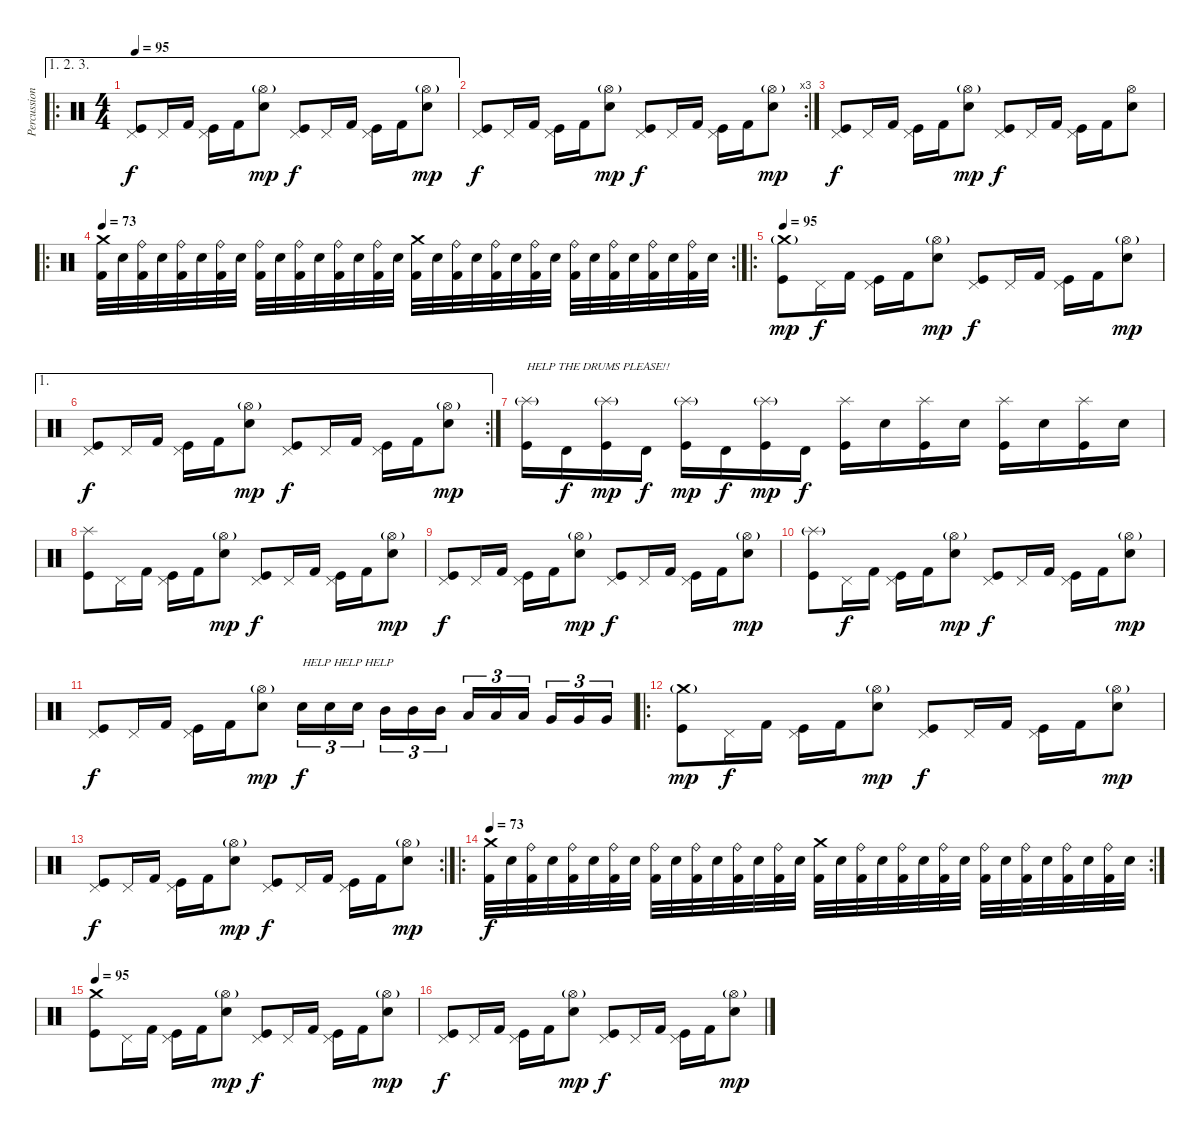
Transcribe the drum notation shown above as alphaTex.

\track ("Percussion" "Percussion") {instrument percussion}
\staff {score}
\articulation defaults
\ae (1 2 3)
\ro
\ts (4 4)
\tempo 95
\clef neutral
\ks c
("Pedal Hi-Hat (hit)" "Kick (hit)").8{dy f} "Pedal Hi-Hat (hit)".16 "Kick (hit) 2".16 ("Pedal Hi-Hat (hit)" "Kick (hit)").16 "Kick (hit) 2".16 ("Hi-Hat (open)"{g} "Electric Snare (hit)").8{dy mp} ("Pedal Hi-Hat (hit)" "Kick (hit)").8{dy f} "Pedal Hi-Hat (hit)".16 "Kick (hit) 2".16 ("Pedal Hi-Hat (hit)" "Kick (hit)").16 "Kick (hit) 2".16 ("Hi-Hat (open)"{g} "Electric Snare (hit)").8{dy mp} |
\rc 3
("Pedal Hi-Hat (hit)" "Kick (hit)").8{dy f} "Pedal Hi-Hat (hit)".16 "Kick (hit) 2".16 ("Pedal Hi-Hat (hit)" "Kick (hit)").16 "Kick (hit) 2".16 ("Hi-Hat (open)"{g} "Electric Snare (hit)").8{dy mp} ("Pedal Hi-Hat (hit)" "Kick (hit)").8{dy f} "Pedal Hi-Hat (hit)".16 "Kick (hit) 2".16 ("Pedal Hi-Hat (hit)" "Kick (hit)").16 "Kick (hit) 2".16 ("Hi-Hat (open)"{g} "Electric Snare (hit)").8{dy mp} |
("Pedal Hi-Hat (hit)" "Kick (hit)").8{dy f} "Pedal Hi-Hat (hit)".16 "Kick (hit) 2".16 ("Pedal Hi-Hat (hit)" "Kick (hit)").16 "Kick (hit) 2".16 ("Hi-Hat (open)"{g} "Electric Snare (hit)").8{dy mp} ("Pedal Hi-Hat (hit)" "Kick (hit)").8{dy f} "Pedal Hi-Hat (hit)".16 "Kick (hit) 2".16 ("Pedal Hi-Hat (hit)" "Kick (hit)").16 "Kick (hit) 2".16 ("Hi-Hat (open)" "Electric Snare (hit)").8 |
\ro
\rc 2
\tempo 73
("Crash medium (hit)" "Kick (hit) 2").32 "Electric Snare (hit)".32 ("Ride (bell)" "Kick (hit) 2").32 "Electric Snare (hit)".32 ("Ride (bell)" "Kick (hit) 2").32 "Electric Snare (hit)".32 ("Ride (bell)" "Kick (hit) 2").32 "Electric Snare (hit)".32 ("Ride (bell)" "Kick (hit) 2").32 "Electric Snare (hit)".32 ("Ride (bell)" "Kick (hit) 2").32 "Electric Snare (hit)".32 ("Ride (bell)" "Kick (hit) 2").32 "Electric Snare (hit)".32 ("Ride (bell)" "Kick (hit) 2").32 "Electric Snare (hit)".32 ("Crash medium (hit)" "Kick (hit) 2").32 "Electric Snare (hit)".32 ("Ride (bell)" "Kick (hit) 2").32 "Electric Snare (hit)".32 ("Ride (bell)" "Kick (hit) 2").32 "Electric Snare (hit)".32 ("Ride (bell)" "Kick (hit) 2").32 "Electric Snare (hit)".32 ("Ride (bell)" "Kick (hit) 2").32 "Electric Snare (hit)".32 ("Ride (bell)" "Kick (hit) 2").32 "Electric Snare (hit)".32 ("Ride (bell)" "Kick (hit) 2").32 "Electric Snare (hit)".32 ("Ride (bell)" "Kick (hit) 2").32 "Electric Snare (hit)".32 |
\ro
\tempo 95
("Crash medium (hit)"{g} "Kick (hit)").8{dy mp} "Pedal Hi-Hat (hit)".16{dy f} "Kick (hit) 2".16 ("Pedal Hi-Hat (hit)" "Kick (hit)").16 "Kick (hit) 2".16 ("Hi-Hat (open)"{g} "Electric Snare (hit)").8{dy mp} ("Pedal Hi-Hat (hit)" "Kick (hit)").8{dy f} "Pedal Hi-Hat (hit)".16 "Kick (hit) 2".16 ("Pedal Hi-Hat (hit)" "Kick (hit)").16 "Kick (hit) 2".16 ("Hi-Hat (open)"{g} "Electric Snare (hit)").8{dy mp} |
\ae 1
\rc 2
("Pedal Hi-Hat (hit)" "Kick (hit)").8{dy f} "Pedal Hi-Hat (hit)".16 "Kick (hit) 2".16 ("Pedal Hi-Hat (hit)" "Kick (hit)").16 "Kick (hit) 2".16 ("Hi-Hat (open)"{g} "Electric Snare (hit)").8{dy mp} ("Pedal Hi-Hat (hit)" "Kick (hit)").8{dy f} "Pedal Hi-Hat (hit)".16 "Kick (hit) 2".16 ("Pedal Hi-Hat (hit)" "Kick (hit)").16 "Kick (hit) 2".16 ("Hi-Hat (open)"{g} "Electric Snare (hit)").8{dy mp} |
("Splash (hit)"{g} "Kick (hit)").16{txt "HELP THE DRUMS PLEASE!!"} "Timbale high (hit)".16{dy f} ("Splash (hit)"{g} "Kick (hit)").16{dy mp} "Timbale high (hit)".16{dy f} ("Splash (hit)"{g} "Kick (hit)").16{dy mp} "Timbale high (hit)".16{dy f} ("Splash (hit)"{g} "Kick (hit)").16{dy mp} "Timbale high (hit)".16{dy f} ("Splash (hit)" "Kick (hit)").16 "Electric Snare (hit)".16 ("Splash (hit)" "Kick (hit)").16 "Electric Snare (hit)".16 ("Splash (hit)" "Kick (hit)").16 "Electric Snare (hit)".16 ("Splash (hit)" "Kick (hit)").16 "Electric Snare (hit)".16 |
("Splash (hit)" "Kick (hit)").8 "Pedal Hi-Hat (hit)".16 "Kick (hit) 2".16 ("Pedal Hi-Hat (hit)" "Kick (hit)").16 "Kick (hit) 2".16 ("Hi-Hat (open)"{g} "Electric Snare (hit)").8{dy mp} ("Pedal Hi-Hat (hit)" "Kick (hit)").8{dy f} "Pedal Hi-Hat (hit)".16 "Kick (hit) 2".16 ("Pedal Hi-Hat (hit)" "Kick (hit)").16 "Kick (hit) 2".16 ("Hi-Hat (open)"{g} "Electric Snare (hit)").8{dy mp} |
("Pedal Hi-Hat (hit)" "Kick (hit)").8{dy f} "Pedal Hi-Hat (hit)".16 "Kick (hit) 2".16 ("Pedal Hi-Hat (hit)" "Kick (hit)").16 "Kick (hit) 2".16 ("Hi-Hat (open)"{g} "Electric Snare (hit)").8{dy mp} ("Pedal Hi-Hat (hit)" "Kick (hit)").8{dy f} "Pedal Hi-Hat (hit)".16 "Kick (hit) 2".16 ("Pedal Hi-Hat (hit)" "Kick (hit)").16 "Kick (hit) 2".16 ("Hi-Hat (open)"{g} "Electric Snare (hit)").8{dy mp} |
("Splash (hit)"{g} "Kick (hit)").8 "Pedal Hi-Hat (hit)".16{dy f} "Kick (hit) 2".16 ("Pedal Hi-Hat (hit)" "Kick (hit)").16 "Kick (hit) 2".16 ("Hi-Hat (open)"{g} "Electric Snare (hit)").8{dy mp} ("Pedal Hi-Hat (hit)" "Kick (hit)").8{dy f} "Pedal Hi-Hat (hit)".16 "Kick (hit) 2".16 ("Pedal Hi-Hat (hit)" "Kick (hit)").16 "Kick (hit) 2".16 ("Hi-Hat (open)"{g} "Electric Snare (hit)").8{dy mp} |
("Pedal Hi-Hat (hit)" "Kick (hit)").8{dy f} "Pedal Hi-Hat (hit)".16 "Kick (hit) 2".16 ("Pedal Hi-Hat (hit)" "Kick (hit)").16 "Kick (hit) 2".16 ("Hi-Hat (open)"{g} "Electric Snare (hit)").8{dy mp} "Electric Snare (hit)".16{tu (3 2) txt "HELP HELP HELP" dy f} "Electric Snare (hit)".16{tu (3 2)} "Electric Snare (hit)".16{tu (3 2)} "Mid Tom (hit)".16{tu (3 2)} "Mid Tom (hit)".16{tu (3 2)} "Mid Tom (hit)".16{tu (3 2)} "Low Tom (hit)".16{tu (3 2)} "Low Tom (hit)".16{tu (3 2)} "Low Tom (hit)".16{tu (3 2)} "Very Low Tom (hit)".16{tu (3 2)} "Very Low Tom (hit)".16{tu (3 2)} "Very Low Tom (hit)".16{tu (3 2)} |
\ro
("Crash medium (hit)"{g} "Kick (hit)").8{dy mp} "Pedal Hi-Hat (hit)".16{dy f} "Kick (hit) 2".16 ("Pedal Hi-Hat (hit)" "Kick (hit)").16 "Kick (hit) 2".16 ("Hi-Hat (open)"{g} "Electric Snare (hit)").8{dy mp} ("Pedal Hi-Hat (hit)" "Kick (hit)").8{dy f} "Pedal Hi-Hat (hit)".16 "Kick (hit) 2".16 ("Pedal Hi-Hat (hit)" "Kick (hit)").16 "Kick (hit) 2".16 ("Hi-Hat (open)"{g} "Electric Snare (hit)").8{dy mp} |
\rc 2
("Pedal Hi-Hat (hit)" "Kick (hit)").8{dy f} "Pedal Hi-Hat (hit)".16 "Kick (hit) 2".16 ("Pedal Hi-Hat (hit)" "Kick (hit)").16 "Kick (hit) 2".16 ("Hi-Hat (open)"{g} "Electric Snare (hit)").8{dy mp} ("Pedal Hi-Hat (hit)" "Kick (hit)").8{dy f} "Pedal Hi-Hat (hit)".16 "Kick (hit) 2".16 ("Pedal Hi-Hat (hit)" "Kick (hit)").16 "Kick (hit) 2".16 ("Hi-Hat (open)"{g} "Electric Snare (hit)").8{dy mp} |
\ro
\rc 2
\tempo 73
("Crash medium (hit)" "Kick (hit) 2").32{dy f} "Electric Snare (hit)".32 ("Ride (bell)" "Kick (hit) 2").32 "Electric Snare (hit)".32 ("Ride (bell)" "Kick (hit) 2").32 "Electric Snare (hit)".32 ("Ride (bell)" "Kick (hit) 2").32 "Electric Snare (hit)".32 ("Ride (bell)" "Kick (hit) 2").32 "Electric Snare (hit)".32 ("Ride (bell)" "Kick (hit) 2").32 "Electric Snare (hit)".32 ("Ride (bell)" "Kick (hit) 2").32 "Electric Snare (hit)".32 ("Ride (bell)" "Kick (hit) 2").32 "Electric Snare (hit)".32 ("Crash medium (hit)" "Kick (hit) 2").32 "Electric Snare (hit)".32 ("Ride (bell)" "Kick (hit) 2").32 "Electric Snare (hit)".32 ("Ride (bell)" "Kick (hit) 2").32 "Electric Snare (hit)".32 ("Ride (bell)" "Kick (hit) 2").32 "Electric Snare (hit)".32 ("Ride (bell)" "Kick (hit) 2").32 "Electric Snare (hit)".32 ("Ride (bell)" "Kick (hit) 2").32 "Electric Snare (hit)".32 ("Ride (bell)" "Kick (hit) 2").32 "Electric Snare (hit)".32 ("Ride (bell)" "Kick (hit) 2").32 "Electric Snare (hit)".32 |
\tempo 95
("Crash medium (hit)" "Kick (hit)").8 "Pedal Hi-Hat (hit)".16 "Kick (hit) 2".16 ("Pedal Hi-Hat (hit)" "Kick (hit)").16 "Kick (hit) 2".16 ("Hi-Hat (open)"{g} "Electric Snare (hit)").8{dy mp} ("Pedal Hi-Hat (hit)" "Kick (hit)").8{dy f} "Pedal Hi-Hat (hit)".16 "Kick (hit) 2".16 ("Pedal Hi-Hat (hit)" "Kick (hit)").16 "Kick (hit) 2".16 ("Hi-Hat (open)"{g} "Electric Snare (hit)").8{dy mp} |
("Pedal Hi-Hat (hit)" "Kick (hit)").8{dy f} "Pedal Hi-Hat (hit)".16 "Kick (hit) 2".16 ("Pedal Hi-Hat (hit)" "Kick (hit)").16 "Kick (hit) 2".16 ("Hi-Hat (open)"{g} "Electric Snare (hit)").8{dy mp} ("Pedal Hi-Hat (hit)" "Kick (hit)").8{dy f} "Pedal Hi-Hat (hit)".16 "Kick (hit) 2".16 ("Pedal Hi-Hat (hit)" "Kick (hit)").16 "Kick (hit) 2".16 ("Hi-Hat (open)"{g} "Electric Snare (hit)").8{dy mp}
